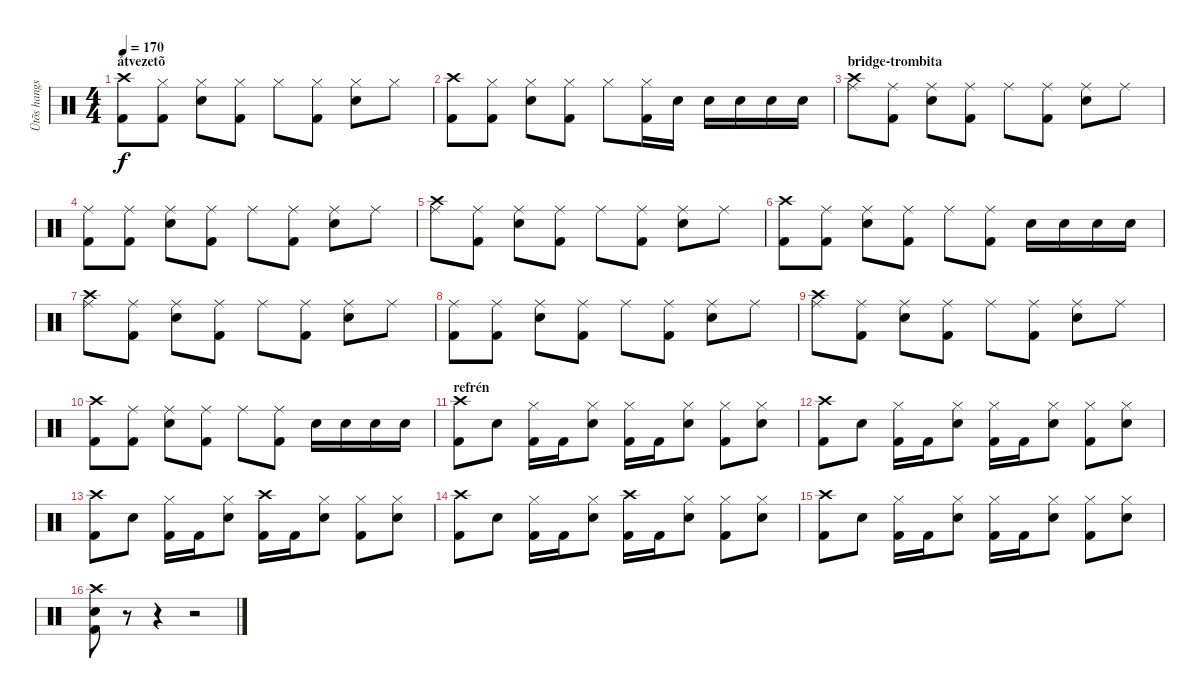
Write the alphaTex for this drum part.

\track ("Ütõs hangszer" "Ütõs hangs") {instrument percussion}
\staff {score}
\articulation defaults
\ts (4 4)
\section ("" "átvezetõ")
\tempo 170
\clef neutral
\ks c
("Crash high (hit)" "Kick (hit) 2").8{dy f} ("Hi-Hat (closed)" "Kick (hit) 2").8 ("Snare (hit) 2" "Hi-Hat (closed)").8 ("Kick (hit) 2" "Hi-Hat (closed)").8 "Hi-Hat (closed)".8 ("Kick (hit) 2" "Hi-Hat (closed)").8 ("Snare (hit) 2" "Hi-Hat (closed)").8 "Hi-Hat (closed)".8 |
("Crash high (hit)" "Kick (hit) 2").8 ("Hi-Hat (closed)" "Kick (hit) 2").8 ("Snare (hit) 2" "Hi-Hat (closed)").8 ("Kick (hit) 2" "Hi-Hat (closed)").8 "Hi-Hat (closed)".8 ("Kick (hit) 2" "Hi-Hat (closed)").16 "Snare (hit) 2".16 "Snare (hit) 2".16 "Snare (hit) 2".16 "Snare (hit) 2".16 "Snare (hit) 2".16 |
\section ("" "bridge-trombita")
("Crash high (hit)" "Ride (middle)").8 ("Kick (hit) 2" "Ride (middle)").8 ("Snare (hit) 2" "Ride (middle)").8 ("Kick (hit) 2" "Ride (middle)").8 "Ride (middle)".8 ("Kick (hit) 2" "Ride (middle)").8 ("Snare (hit) 2" "Ride (middle)").8 "Ride (middle)".8 |
("Ride (middle)" "Kick (hit) 2").8 ("Ride (middle)" "Kick (hit) 2").8 ("Ride (middle)" "Snare (hit) 2").8 ("Ride (middle)" "Kick (hit) 2").8 "Ride (middle)".8 ("Ride (middle)" "Kick (hit) 2").8 ("Ride (middle)" "Snare (hit) 2").8 "Ride (middle)".8 |
("Crash high (hit)" "Ride (middle)").8 ("Kick (hit) 2" "Ride (middle)").8 ("Snare (hit) 2" "Ride (middle)").8 ("Kick (hit) 2" "Ride (middle)").8 "Ride (middle)".8 ("Kick (hit) 2" "Ride (middle)").8 ("Snare (hit) 2" "Ride (middle)").8 "Ride (middle)".8 |
("Crash high (hit)" "Kick (hit) 2").8 ("Ride (middle)" "Kick (hit) 2").8 ("Ride (middle)" "Snare (hit) 2").8 ("Ride (middle)" "Kick (hit) 2").8 "Ride (middle)".8 ("Ride (middle)" "Kick (hit) 2").8 "Snare (hit) 2".16 "Snare (hit) 2".16 "Snare (hit) 2".16 "Snare (hit) 2".16 |
("Crash high (hit)" "Ride (middle)").8 ("Kick (hit) 2" "Ride (middle)").8 ("Snare (hit) 2" "Ride (middle)").8 ("Kick (hit) 2" "Ride (middle)").8 "Ride (middle)".8 ("Kick (hit) 2" "Ride (middle)").8 ("Snare (hit) 2" "Ride (middle)").8 "Ride (middle)".8 |
("Ride (middle)" "Kick (hit) 2").8 ("Ride (middle)" "Kick (hit) 2").8 ("Ride (middle)" "Snare (hit) 2").8 ("Ride (middle)" "Kick (hit) 2").8 "Ride (middle)".8 ("Ride (middle)" "Kick (hit) 2").8 ("Ride (middle)" "Snare (hit) 2").8 "Ride (middle)".8 |
("Crash high (hit)" "Ride (middle)").8 ("Kick (hit) 2" "Ride (middle)").8 ("Snare (hit) 2" "Ride (middle)").8 ("Kick (hit) 2" "Ride (middle)").8 "Ride (middle)".8 ("Kick (hit) 2" "Ride (middle)").8 ("Snare (hit) 2" "Ride (middle)").8 "Ride (middle)".8 |
("Crash high (hit)" "Kick (hit) 2").8 ("Ride (middle)" "Kick (hit) 2").8 ("Ride (middle)" "Snare (hit) 2").8 ("Ride (middle)" "Kick (hit) 2").8 "Ride (middle)".8 ("Ride (middle)" "Kick (hit) 2").8 "Snare (hit) 2".16 "Snare (hit) 2".16 "Snare (hit) 2".16 "Snare (hit) 2".16 |
\section ("" "refrén")
("Crash high (hit)" "Kick (hit) 2").8 "Snare (hit) 2".8 ("Hi-Hat (closed)" "Kick (hit) 2").16 "Kick (hit) 2".16 ("Hi-Hat (closed)" "Snare (hit) 2").8 ("Hi-Hat (closed)" "Kick (hit) 2").16 "Kick (hit) 2".16 ("Hi-Hat (closed)" "Snare (hit) 2").8 ("Hi-Hat (closed)" "Kick (hit) 2").8 ("Hi-Hat (closed)" "Snare (hit) 2").8 |
("Crash high (hit)" "Kick (hit) 2").8 "Snare (hit) 2".8 ("Hi-Hat (closed)" "Kick (hit) 2").16 "Kick (hit) 2".16 ("Hi-Hat (closed)" "Snare (hit) 2").8 ("Hi-Hat (closed)" "Kick (hit) 2").16 "Kick (hit) 2".16 ("Hi-Hat (closed)" "Snare (hit) 2").8 ("Hi-Hat (closed)" "Kick (hit) 2").8 ("Hi-Hat (closed)" "Snare (hit) 2").8 |
("Crash high (hit)" "Kick (hit) 2").8 "Snare (hit) 2".8 ("Hi-Hat (closed)" "Kick (hit) 2").16 "Kick (hit) 2".16 ("Hi-Hat (closed)" "Snare (hit) 2").8 ("Crash high (hit)" "Kick (hit) 2").16 "Kick (hit) 2".16 ("Hi-Hat (closed)" "Snare (hit) 2").8 ("Hi-Hat (closed)" "Kick (hit) 2").8 ("Hi-Hat (closed)" "Snare (hit) 2").8 |
("Crash high (hit)" "Kick (hit) 2").8 "Snare (hit) 2".8 ("Hi-Hat (closed)" "Kick (hit) 2").16 "Kick (hit) 2".16 ("Hi-Hat (closed)" "Snare (hit) 2").8 ("Crash high (hit)" "Kick (hit) 2").16 "Kick (hit) 2".16 ("Hi-Hat (closed)" "Snare (hit) 2").8 ("Hi-Hat (closed)" "Kick (hit) 2").8 ("Hi-Hat (closed)" "Snare (hit) 2").8 |
("Crash high (hit)" "Kick (hit) 2").8 "Snare (hit) 2".8 ("Hi-Hat (closed)" "Kick (hit) 2").16 "Kick (hit) 2".16 ("Hi-Hat (closed)" "Snare (hit) 2").8 ("Hi-Hat (closed)" "Kick (hit) 2").16 "Kick (hit) 2".16 ("Hi-Hat (closed)" "Snare (hit) 2").8 ("Hi-Hat (closed)" "Kick (hit) 2").8 ("Hi-Hat (closed)" "Snare (hit) 2").8 |
("Snare (hit) 2" "Crash high (hit)" "Kick (hit) 2").8 r.8 r.4 r.2
